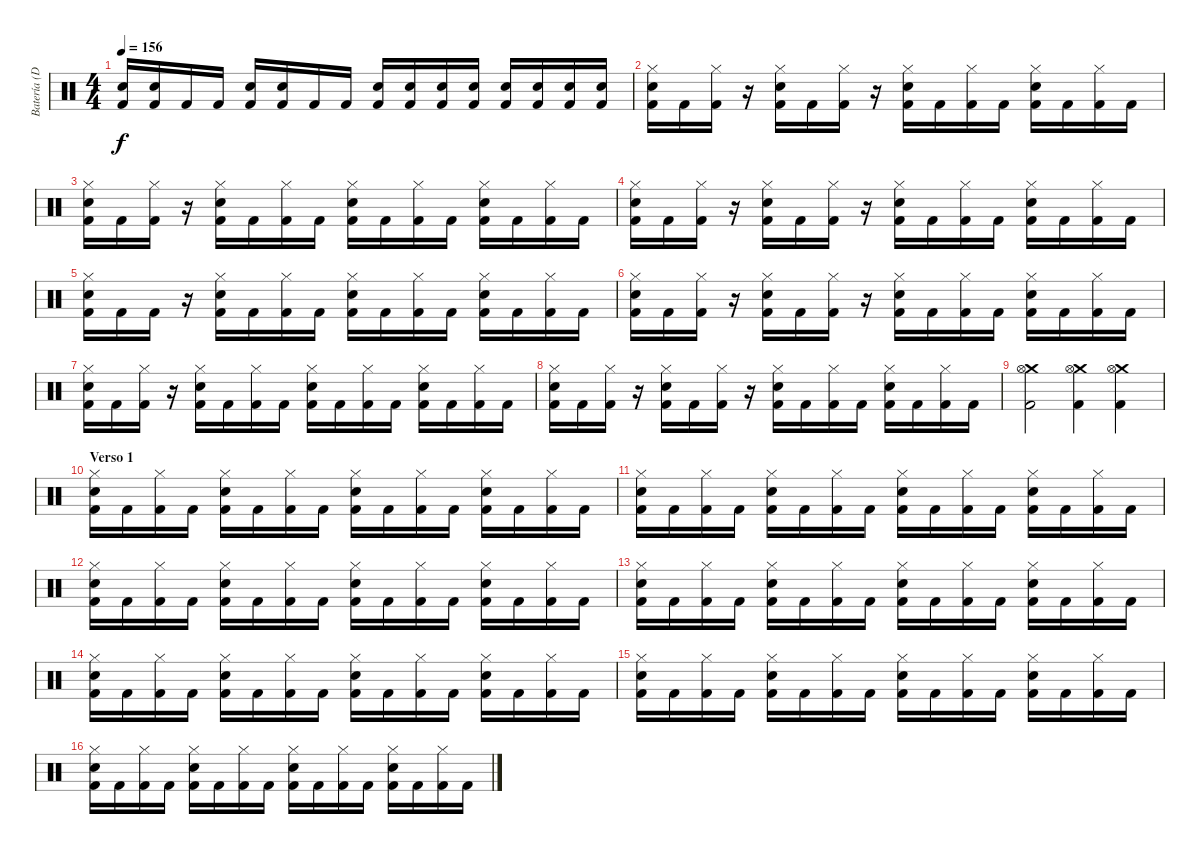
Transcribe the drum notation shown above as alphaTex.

\track ("Batería (Dani)" "Batería (D") {instrument percussion}
\staff {score}
\articulation defaults
\ts (4 4)
\tempo 156
\clef neutral
\ks c
("Snare (hit) 2" "Kick (hit) 2").16{dy f} ("Snare (hit) 2" "Kick (hit) 2").16 "Kick (hit) 2".16 "Kick (hit) 2".16 ("Snare (hit) 2" "Kick (hit) 2").16 ("Snare (hit) 2" "Kick (hit) 2").16 "Kick (hit) 2".16 "Kick (hit) 2".16 ("Snare (hit) 2" "Kick (hit) 2").16 ("Snare (hit) 2" "Kick (hit) 2").16 ("Snare (hit) 2" "Kick (hit) 2").16 ("Snare (hit) 2" "Kick (hit) 2").16 ("Snare (hit) 2" "Kick (hit) 2").16 ("Snare (hit) 2" "Kick (hit) 2").16 ("Snare (hit) 2" "Kick (hit) 2").16 ("Snare (hit) 2" "Kick (hit) 2").16 |
("Hi-Hat (closed)" "Snare (hit) 2" "Kick (hit) 2").16 "Kick (hit) 2".16 ("Hi-Hat (closed)" "Kick (hit) 2").16 r.16 ("Hi-Hat (closed)" "Snare (hit) 2" "Kick (hit) 2").16 "Kick (hit) 2".16 ("Hi-Hat (closed)" "Kick (hit) 2").16 r.16 ("Hi-Hat (closed)" "Snare (hit) 2" "Kick (hit) 2").16 "Kick (hit) 2".16 ("Hi-Hat (closed)" "Kick (hit) 2").16 "Kick (hit) 2".16 ("Hi-Hat (closed)" "Snare (hit) 2" "Kick (hit) 2").16 "Kick (hit) 2".16 ("Hi-Hat (closed)" "Kick (hit) 2").16 "Kick (hit) 2".16 |
("Hi-Hat (closed)" "Snare (hit) 2" "Kick (hit) 2").16 "Kick (hit) 2".16 ("Hi-Hat (closed)" "Kick (hit) 2").16 r.16 ("Hi-Hat (closed)" "Snare (hit) 2" "Kick (hit) 2").16 "Kick (hit) 2".16 ("Hi-Hat (closed)" "Kick (hit) 2").16 "Kick (hit) 2".16 ("Hi-Hat (closed)" "Snare (hit) 2" "Kick (hit) 2").16 "Kick (hit) 2".16 ("Hi-Hat (closed)" "Kick (hit) 2").16 "Kick (hit) 2".16 ("Hi-Hat (closed)" "Snare (hit) 2" "Kick (hit) 2").16 "Kick (hit) 2".16 ("Hi-Hat (closed)" "Kick (hit) 2").16 "Kick (hit) 2".16 |
("Hi-Hat (closed)" "Snare (hit) 2" "Kick (hit) 2").16 "Kick (hit) 2".16 ("Hi-Hat (closed)" "Kick (hit) 2").16 r.16 ("Hi-Hat (closed)" "Snare (hit) 2" "Kick (hit) 2").16 "Kick (hit) 2".16 ("Hi-Hat (closed)" "Kick (hit) 2").16 r.16 ("Hi-Hat (closed)" "Snare (hit) 2" "Kick (hit) 2").16 "Kick (hit) 2".16 ("Hi-Hat (closed)" "Kick (hit) 2").16 "Kick (hit) 2".16 ("Hi-Hat (closed)" "Snare (hit) 2" "Kick (hit) 2").16 "Kick (hit) 2".16 ("Hi-Hat (closed)" "Kick (hit) 2").16 "Kick (hit) 2".16 |
("Hi-Hat (closed)" "Snare (hit) 2" "Kick (hit) 2").16 "Kick (hit) 2".16 "Kick (hit) 2".16 r.16 ("Hi-Hat (closed)" "Snare (hit) 2" "Kick (hit) 2").16 "Kick (hit) 2".16 ("Hi-Hat (closed)" "Kick (hit) 2").16 "Kick (hit) 2".16 ("Hi-Hat (closed)" "Snare (hit) 2" "Kick (hit) 2").16 "Kick (hit) 2".16 ("Hi-Hat (closed)" "Kick (hit) 2").16 "Kick (hit) 2".16 ("Hi-Hat (closed)" "Snare (hit) 2" "Kick (hit) 2").16 "Kick (hit) 2".16 ("Hi-Hat (closed)" "Kick (hit) 2").16 "Kick (hit) 2".16 |
("Hi-Hat (closed)" "Snare (hit) 2" "Kick (hit) 2").16 "Kick (hit) 2".16 ("Hi-Hat (closed)" "Kick (hit) 2").16 r.16 ("Hi-Hat (closed)" "Snare (hit) 2" "Kick (hit) 2").16 "Kick (hit) 2".16 ("Hi-Hat (closed)" "Kick (hit) 2").16 r.16 ("Hi-Hat (closed)" "Snare (hit) 2" "Kick (hit) 2").16 "Kick (hit) 2".16 ("Hi-Hat (closed)" "Kick (hit) 2").16 "Kick (hit) 2".16 ("Hi-Hat (closed)" "Snare (hit) 2" "Kick (hit) 2").16 "Kick (hit) 2".16 ("Hi-Hat (closed)" "Kick (hit) 2").16 "Kick (hit) 2".16 |
("Hi-Hat (closed)" "Snare (hit) 2" "Kick (hit) 2").16 "Kick (hit) 2".16 ("Hi-Hat (closed)" "Kick (hit) 2").16 r.16 ("Hi-Hat (closed)" "Snare (hit) 2" "Kick (hit) 2").16 "Kick (hit) 2".16 ("Hi-Hat (closed)" "Kick (hit) 2").16 "Kick (hit) 2".16 ("Hi-Hat (closed)" "Snare (hit) 2" "Kick (hit) 2").16 "Kick (hit) 2".16 ("Hi-Hat (closed)" "Kick (hit) 2").16 "Kick (hit) 2".16 ("Hi-Hat (closed)" "Snare (hit) 2" "Kick (hit) 2").16 "Kick (hit) 2".16 ("Hi-Hat (closed)" "Kick (hit) 2").16 "Kick (hit) 2".16 |
("Hi-Hat (closed)" "Snare (hit) 2" "Kick (hit) 2").16 "Kick (hit) 2".16 ("Hi-Hat (closed)" "Kick (hit) 2").16 r.16 ("Hi-Hat (closed)" "Snare (hit) 2" "Kick (hit) 2").16 "Kick (hit) 2".16 ("Hi-Hat (closed)" "Kick (hit) 2").16 r.16 ("Hi-Hat (closed)" "Snare (hit) 2" "Kick (hit) 2").16 "Kick (hit) 2".16 ("Hi-Hat (closed)" "Kick (hit) 2").16 "Kick (hit) 2".16 ("Hi-Hat (closed)" "Snare (hit) 2" "Kick (hit) 2").16 "Kick (hit) 2".16 ("Hi-Hat (closed)" "Kick (hit) 2").16 "Kick (hit) 2".16 |
("Crash medium (hit)" "Hi-Hat (open)" "Kick (hit) 2").2 ("Crash medium (hit)" "Hi-Hat (open)" "Kick (hit) 2").4 ("Crash medium (hit)" "Hi-Hat (open)" "Kick (hit) 2").4 |
\section ("" "Verso 1")
("Hi-Hat (closed)" "Snare (hit) 2" "Kick (hit) 2").16 "Kick (hit) 2".16 ("Hi-Hat (closed)" "Kick (hit) 2").16 "Kick (hit) 2".16 ("Hi-Hat (closed)" "Snare (hit) 2" "Kick (hit) 2").16 "Kick (hit) 2".16 ("Hi-Hat (closed)" "Kick (hit) 2").16 "Kick (hit) 2".16 ("Hi-Hat (closed)" "Snare (hit) 2" "Kick (hit) 2").16 "Kick (hit) 2".16 ("Hi-Hat (closed)" "Kick (hit) 2").16 "Kick (hit) 2".16 ("Hi-Hat (closed)" "Snare (hit) 2" "Kick (hit) 2").16 "Kick (hit) 2".16 ("Hi-Hat (closed)" "Kick (hit) 2").16 "Kick (hit) 2".16 |
("Hi-Hat (closed)" "Snare (hit) 2" "Kick (hit) 2").16 "Kick (hit) 2".16 ("Hi-Hat (closed)" "Kick (hit) 2").16 "Kick (hit) 2".16 ("Hi-Hat (closed)" "Snare (hit) 2" "Kick (hit) 2").16 "Kick (hit) 2".16 ("Hi-Hat (closed)" "Kick (hit) 2").16 "Kick (hit) 2".16 ("Hi-Hat (closed)" "Snare (hit) 2" "Kick (hit) 2").16 "Kick (hit) 2".16 ("Hi-Hat (closed)" "Kick (hit) 2").16 "Kick (hit) 2".16 ("Hi-Hat (closed)" "Snare (hit) 2" "Kick (hit) 2").16 "Kick (hit) 2".16 ("Hi-Hat (closed)" "Kick (hit) 2").16 "Kick (hit) 2".16 |
("Hi-Hat (closed)" "Snare (hit) 2" "Kick (hit) 2").16 "Kick (hit) 2".16 ("Hi-Hat (closed)" "Kick (hit) 2").16 "Kick (hit) 2".16 ("Hi-Hat (closed)" "Snare (hit) 2" "Kick (hit) 2").16 "Kick (hit) 2".16 ("Hi-Hat (closed)" "Kick (hit) 2").16 "Kick (hit) 2".16 ("Hi-Hat (closed)" "Snare (hit) 2" "Kick (hit) 2").16 "Kick (hit) 2".16 ("Hi-Hat (closed)" "Kick (hit) 2").16 "Kick (hit) 2".16 ("Hi-Hat (closed)" "Snare (hit) 2" "Kick (hit) 2").16 "Kick (hit) 2".16 ("Hi-Hat (closed)" "Kick (hit) 2").16 "Kick (hit) 2".16 |
("Hi-Hat (closed)" "Snare (hit) 2" "Kick (hit) 2").16 "Kick (hit) 2".16 ("Hi-Hat (closed)" "Kick (hit) 2").16 "Kick (hit) 2".16 ("Hi-Hat (closed)" "Snare (hit) 2" "Kick (hit) 2").16 "Kick (hit) 2".16 ("Hi-Hat (closed)" "Kick (hit) 2").16 "Kick (hit) 2".16 ("Hi-Hat (closed)" "Snare (hit) 2" "Kick (hit) 2").16 "Kick (hit) 2".16 ("Hi-Hat (closed)" "Kick (hit) 2").16 "Kick (hit) 2".16 ("Hi-Hat (closed)" "Snare (hit) 2" "Kick (hit) 2").16 "Kick (hit) 2".16 ("Hi-Hat (closed)" "Kick (hit) 2").16 "Kick (hit) 2".16 |
("Hi-Hat (closed)" "Snare (hit) 2" "Kick (hit) 2").16 "Kick (hit) 2".16 ("Hi-Hat (closed)" "Kick (hit) 2").16 "Kick (hit) 2".16 ("Hi-Hat (closed)" "Snare (hit) 2" "Kick (hit) 2").16 "Kick (hit) 2".16 ("Hi-Hat (closed)" "Kick (hit) 2").16 "Kick (hit) 2".16 ("Hi-Hat (closed)" "Snare (hit) 2" "Kick (hit) 2").16 "Kick (hit) 2".16 ("Hi-Hat (closed)" "Kick (hit) 2").16 "Kick (hit) 2".16 ("Hi-Hat (closed)" "Snare (hit) 2" "Kick (hit) 2").16 "Kick (hit) 2".16 ("Hi-Hat (closed)" "Kick (hit) 2").16 "Kick (hit) 2".16 |
("Hi-Hat (closed)" "Snare (hit) 2" "Kick (hit) 2").16 "Kick (hit) 2".16 ("Hi-Hat (closed)" "Kick (hit) 2").16 "Kick (hit) 2".16 ("Hi-Hat (closed)" "Snare (hit) 2" "Kick (hit) 2").16 "Kick (hit) 2".16 ("Hi-Hat (closed)" "Kick (hit) 2").16 "Kick (hit) 2".16 ("Hi-Hat (closed)" "Snare (hit) 2" "Kick (hit) 2").16 "Kick (hit) 2".16 ("Hi-Hat (closed)" "Kick (hit) 2").16 "Kick (hit) 2".16 ("Hi-Hat (closed)" "Snare (hit) 2" "Kick (hit) 2").16 "Kick (hit) 2".16 ("Hi-Hat (closed)" "Kick (hit) 2").16 "Kick (hit) 2".16 |
("Hi-Hat (closed)" "Snare (hit) 2" "Kick (hit) 2").16 "Kick (hit) 2".16 ("Hi-Hat (closed)" "Kick (hit) 2").16 "Kick (hit) 2".16 ("Hi-Hat (closed)" "Snare (hit) 2" "Kick (hit) 2").16 "Kick (hit) 2".16 ("Hi-Hat (closed)" "Kick (hit) 2").16 "Kick (hit) 2".16 ("Hi-Hat (closed)" "Snare (hit) 2" "Kick (hit) 2").16 "Kick (hit) 2".16 ("Hi-Hat (closed)" "Kick (hit) 2").16 "Kick (hit) 2".16 ("Hi-Hat (closed)" "Snare (hit) 2" "Kick (hit) 2").16 "Kick (hit) 2".16 ("Hi-Hat (closed)" "Kick (hit) 2").16 "Kick (hit) 2".16
